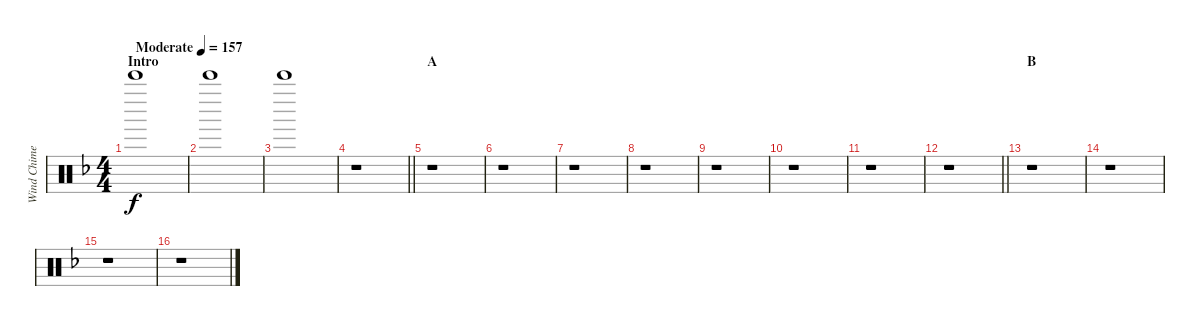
\track ("Wind Chime" "Wind Chime") {instrument percussion}
\staff {score}
\articulation defaults
\ts (4 4)
\section ("" "Intro")
\tempo (157 "Moderate")
\clef neutral
\ks f "Bell Tree (hit)".1{dy f}
|
"Bell Tree (hit)".1 |
"Bell Tree (hit)".1 |
\barLineRight lightlight
r.1 |
\section ("" "A")
r.1 |
r.1 |
r.1 |
r.1 |
r.1 |
r.1 |
r.1 |
\barLineRight lightlight
r.1 |
\section ("" "B")
r.1 |
r.1 |
r.1 |
r.1
